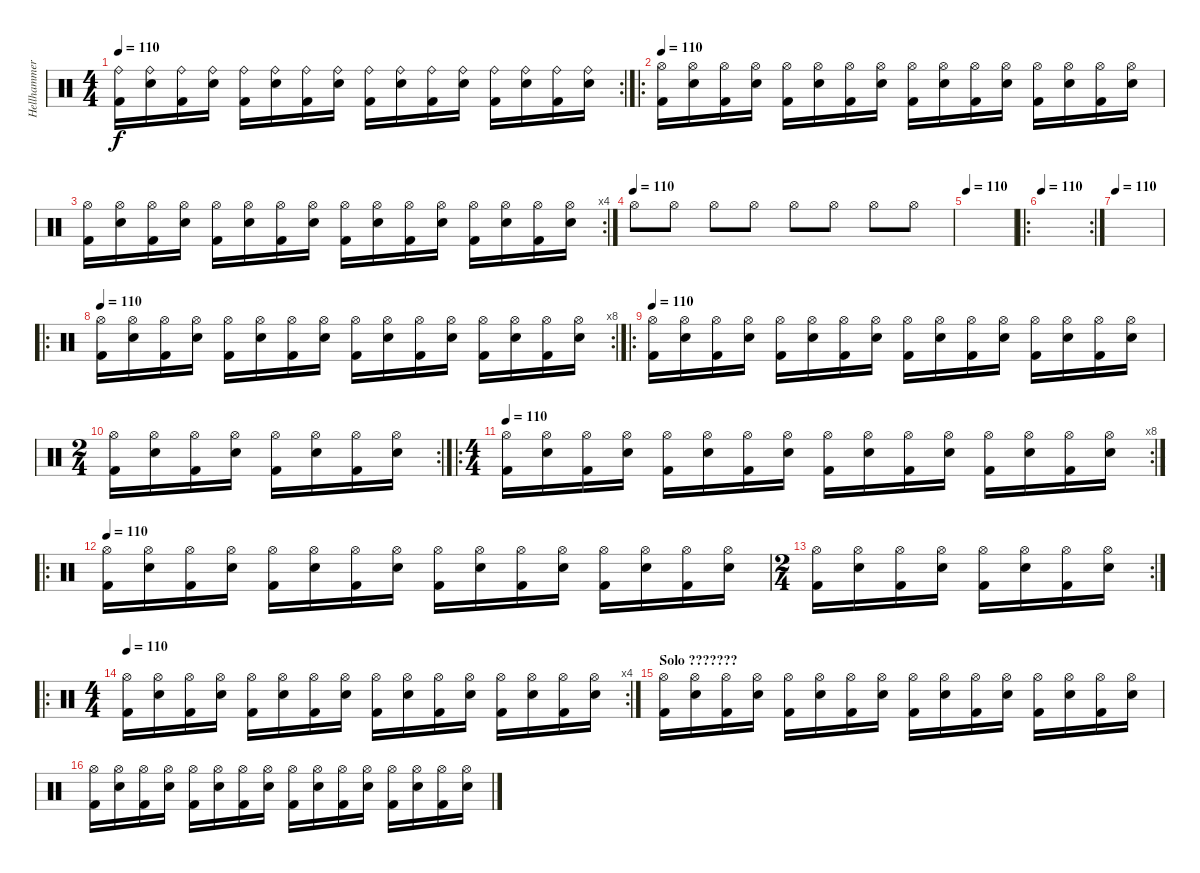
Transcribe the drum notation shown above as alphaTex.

\track ("Hellhammer" "Hellhammer") {instrument percussion}
\staff {score}
\articulation defaults
\rc 2
\ts (4 4)
\tempo 110
\clef neutral
\ks c
("Ride (bell)" "Kick (hit) 2").16{dy f} ("Ride (bell)" "Snare (hit) 2").16 ("Ride (bell)" "Kick (hit) 2").16 ("Ride (bell)" "Snare (hit) 2").16 ("Ride (bell)" "Kick (hit) 2").16 ("Ride (bell)" "Snare (hit) 2").16 ("Ride (bell)" "Kick (hit) 2").16 ("Ride (bell)" "Snare (hit) 2").16 ("Ride (bell)" "Kick (hit) 2").16 ("Ride (bell)" "Snare (hit) 2").16 ("Ride (bell)" "Kick (hit) 2").16 ("Ride (bell)" "Snare (hit) 2").16 ("Ride (bell)" "Kick (hit) 2").16 ("Ride (bell)" "Snare (hit) 2").16 ("Ride (bell)" "Kick (hit) 2").16 ("Ride (bell)" "Snare (hit) 2").16 |
\ro
\tempo 110
("Hi-Hat (open)" "Kick (hit) 2").16 ("Hi-Hat (open)" "Snare (hit) 2").16 ("Hi-Hat (open)" "Kick (hit) 2").16 ("Hi-Hat (open)" "Snare (hit) 2").16 ("Hi-Hat (open)" "Kick (hit) 2").16 ("Hi-Hat (open)" "Snare (hit) 2").16 ("Hi-Hat (open)" "Kick (hit) 2").16 ("Hi-Hat (open)" "Snare (hit) 2").16 ("Hi-Hat (open)" "Kick (hit) 2").16 ("Hi-Hat (open)" "Snare (hit) 2").16 ("Hi-Hat (open)" "Kick (hit) 2").16 ("Hi-Hat (open)" "Snare (hit) 2").16 ("Hi-Hat (open)" "Kick (hit) 2").16 ("Hi-Hat (open)" "Snare (hit) 2").16 ("Hi-Hat (open)" "Kick (hit) 2").16 ("Hi-Hat (open)" "Snare (hit) 2").16 |
\rc 4
("Hi-Hat (open)" "Kick (hit) 2").16 ("Hi-Hat (open)" "Snare (hit) 2").16 ("Hi-Hat (open)" "Kick (hit) 2").16 ("Hi-Hat (open)" "Snare (hit) 2").16 ("Hi-Hat (open)" "Kick (hit) 2").16 ("Hi-Hat (open)" "Snare (hit) 2").16 ("Hi-Hat (open)" "Kick (hit) 2").16 ("Hi-Hat (open)" "Snare (hit) 2").16 ("Hi-Hat (open)" "Kick (hit) 2").16 ("Hi-Hat (open)" "Snare (hit) 2").16 ("Hi-Hat (open)" "Kick (hit) 2").16 ("Hi-Hat (open)" "Snare (hit) 2").16 ("Hi-Hat (open)" "Kick (hit) 2").16 ("Hi-Hat (open)" "Snare (hit) 2").16 ("Hi-Hat (open)" "Kick (hit) 2").16 ("Hi-Hat (open)" "Snare (hit) 2").16 |
\tempo (110)
"Hi-Hat (open)".8 "Hi-Hat (open)".8 "Hi-Hat (open)".8 "Hi-Hat (open)".8 "Hi-Hat (open)".8 "Hi-Hat (open)".8 "Hi-Hat (open)".8 "Hi-Hat (open)".8 |
\tempo 110
|
\ro
\rc 2
\tempo 110
|
\tempo 110
|
\ro
\rc 8
\tempo 110
("Hi-Hat (open)" "Kick (hit) 2").16 ("Hi-Hat (open)" "Snare (hit) 2").16 ("Hi-Hat (open)" "Kick (hit) 2").16 ("Hi-Hat (open)" "Snare (hit) 2").16 ("Hi-Hat (open)" "Kick (hit) 2").16 ("Hi-Hat (open)" "Snare (hit) 2").16 ("Hi-Hat (open)" "Kick (hit) 2").16 ("Hi-Hat (open)" "Snare (hit) 2").16 ("Hi-Hat (open)" "Kick (hit) 2").16 ("Hi-Hat (open)" "Snare (hit) 2").16 ("Hi-Hat (open)" "Kick (hit) 2").16 ("Hi-Hat (open)" "Snare (hit) 2").16 ("Hi-Hat (open)" "Kick (hit) 2").16 ("Hi-Hat (open)" "Snare (hit) 2").16 ("Hi-Hat (open)" "Kick (hit) 2").16 ("Hi-Hat (open)" "Snare (hit) 2").16 |
\ro
\tempo 110
("Hi-Hat (open)" "Kick (hit) 2").16 ("Hi-Hat (open)" "Snare (hit) 2").16 ("Hi-Hat (open)" "Kick (hit) 2").16 ("Hi-Hat (open)" "Snare (hit) 2").16 ("Hi-Hat (open)" "Kick (hit) 2").16 ("Hi-Hat (open)" "Snare (hit) 2").16 ("Hi-Hat (open)" "Kick (hit) 2").16 ("Hi-Hat (open)" "Snare (hit) 2").16 ("Hi-Hat (open)" "Kick (hit) 2").16 ("Hi-Hat (open)" "Snare (hit) 2").16 ("Hi-Hat (open)" "Kick (hit) 2").16 ("Hi-Hat (open)" "Snare (hit) 2").16 ("Hi-Hat (open)" "Kick (hit) 2").16 ("Hi-Hat (open)" "Snare (hit) 2").16 ("Hi-Hat (open)" "Kick (hit) 2").16 ("Hi-Hat (open)" "Snare (hit) 2").16 |
\rc 2
\ts (2 4)
("Hi-Hat (open)" "Kick (hit) 2").16 ("Hi-Hat (open)" "Snare (hit) 2").16 ("Hi-Hat (open)" "Kick (hit) 2").16 ("Hi-Hat (open)" "Snare (hit) 2").16 ("Hi-Hat (open)" "Kick (hit) 2").16 ("Hi-Hat (open)" "Snare (hit) 2").16 ("Hi-Hat (open)" "Kick (hit) 2").16 ("Hi-Hat (open)" "Snare (hit) 2").16 |
\ro
\rc 8
\ts (4 4)
\tempo 110
("Hi-Hat (open)" "Kick (hit) 2").16 ("Hi-Hat (open)" "Snare (hit) 2").16 ("Hi-Hat (open)" "Kick (hit) 2").16 ("Hi-Hat (open)" "Snare (hit) 2").16 ("Hi-Hat (open)" "Kick (hit) 2").16 ("Hi-Hat (open)" "Snare (hit) 2").16 ("Hi-Hat (open)" "Kick (hit) 2").16 ("Hi-Hat (open)" "Snare (hit) 2").16 ("Hi-Hat (open)" "Kick (hit) 2").16 ("Hi-Hat (open)" "Snare (hit) 2").16 ("Hi-Hat (open)" "Kick (hit) 2").16 ("Hi-Hat (open)" "Snare (hit) 2").16 ("Hi-Hat (open)" "Kick (hit) 2").16 ("Hi-Hat (open)" "Snare (hit) 2").16 ("Hi-Hat (open)" "Kick (hit) 2").16 ("Hi-Hat (open)" "Snare (hit) 2").16 |
\ro
\tempo 110
("Hi-Hat (open)" "Kick (hit) 2").16 ("Hi-Hat (open)" "Snare (hit) 2").16 ("Hi-Hat (open)" "Kick (hit) 2").16 ("Hi-Hat (open)" "Snare (hit) 2").16 ("Hi-Hat (open)" "Kick (hit) 2").16 ("Hi-Hat (open)" "Snare (hit) 2").16 ("Hi-Hat (open)" "Kick (hit) 2").16 ("Hi-Hat (open)" "Snare (hit) 2").16 ("Hi-Hat (open)" "Kick (hit) 2").16 ("Hi-Hat (open)" "Snare (hit) 2").16 ("Hi-Hat (open)" "Kick (hit) 2").16 ("Hi-Hat (open)" "Snare (hit) 2").16 ("Hi-Hat (open)" "Kick (hit) 2").16 ("Hi-Hat (open)" "Snare (hit) 2").16 ("Hi-Hat (open)" "Kick (hit) 2").16 ("Hi-Hat (open)" "Snare (hit) 2").16 |
\rc 2
\ts (2 4)
("Hi-Hat (open)" "Kick (hit) 2").16 ("Hi-Hat (open)" "Snare (hit) 2").16 ("Hi-Hat (open)" "Kick (hit) 2").16 ("Hi-Hat (open)" "Snare (hit) 2").16 ("Hi-Hat (open)" "Kick (hit) 2").16 ("Hi-Hat (open)" "Snare (hit) 2").16 ("Hi-Hat (open)" "Kick (hit) 2").16 ("Hi-Hat (open)" "Snare (hit) 2").16 |
\ro
\rc 4
\ts (4 4)
\tempo 110
("Hi-Hat (open)" "Kick (hit) 2").16 ("Hi-Hat (open)" "Snare (hit) 2").16 ("Hi-Hat (open)" "Kick (hit) 2").16 ("Hi-Hat (open)" "Snare (hit) 2").16 ("Hi-Hat (open)" "Kick (hit) 2").16 ("Hi-Hat (open)" "Snare (hit) 2").16 ("Hi-Hat (open)" "Kick (hit) 2").16 ("Hi-Hat (open)" "Snare (hit) 2").16 ("Hi-Hat (open)" "Kick (hit) 2").16 ("Hi-Hat (open)" "Snare (hit) 2").16 ("Hi-Hat (open)" "Kick (hit) 2").16 ("Hi-Hat (open)" "Snare (hit) 2").16 ("Hi-Hat (open)" "Kick (hit) 2").16 ("Hi-Hat (open)" "Snare (hit) 2").16 ("Hi-Hat (open)" "Kick (hit) 2").16 ("Hi-Hat (open)" "Snare (hit) 2").16 |
\section ("" "Solo ???????")
("Hi-Hat (open)" "Kick (hit) 2").16 ("Hi-Hat (open)" "Snare (hit) 2").16 ("Hi-Hat (open)" "Kick (hit) 2").16 ("Hi-Hat (open)" "Snare (hit) 2").16 ("Hi-Hat (open)" "Kick (hit) 2").16 ("Hi-Hat (open)" "Snare (hit) 2").16 ("Hi-Hat (open)" "Kick (hit) 2").16 ("Hi-Hat (open)" "Snare (hit) 2").16 ("Hi-Hat (open)" "Kick (hit) 2").16 ("Hi-Hat (open)" "Snare (hit) 2").16 ("Hi-Hat (open)" "Kick (hit) 2").16 ("Hi-Hat (open)" "Snare (hit) 2").16 ("Hi-Hat (open)" "Kick (hit) 2").16 ("Hi-Hat (open)" "Snare (hit) 2").16 ("Hi-Hat (open)" "Kick (hit) 2").16 ("Hi-Hat (open)" "Snare (hit) 2").16 |
("Hi-Hat (open)" "Kick (hit) 2").16 ("Hi-Hat (open)" "Snare (hit) 2").16 ("Hi-Hat (open)" "Kick (hit) 2").16 ("Hi-Hat (open)" "Snare (hit) 2").16 ("Hi-Hat (open)" "Kick (hit) 2").16 ("Hi-Hat (open)" "Snare (hit) 2").16 ("Hi-Hat (open)" "Kick (hit) 2").16 ("Hi-Hat (open)" "Snare (hit) 2").16 ("Hi-Hat (open)" "Kick (hit) 2").16 ("Hi-Hat (open)" "Snare (hit) 2").16 ("Hi-Hat (open)" "Kick (hit) 2").16 ("Hi-Hat (open)" "Snare (hit) 2").16 ("Hi-Hat (open)" "Kick (hit) 2").16 ("Hi-Hat (open)" "Snare (hit) 2").16 ("Hi-Hat (open)" "Kick (hit) 2").16 ("Hi-Hat (open)" "Snare (hit) 2").16
